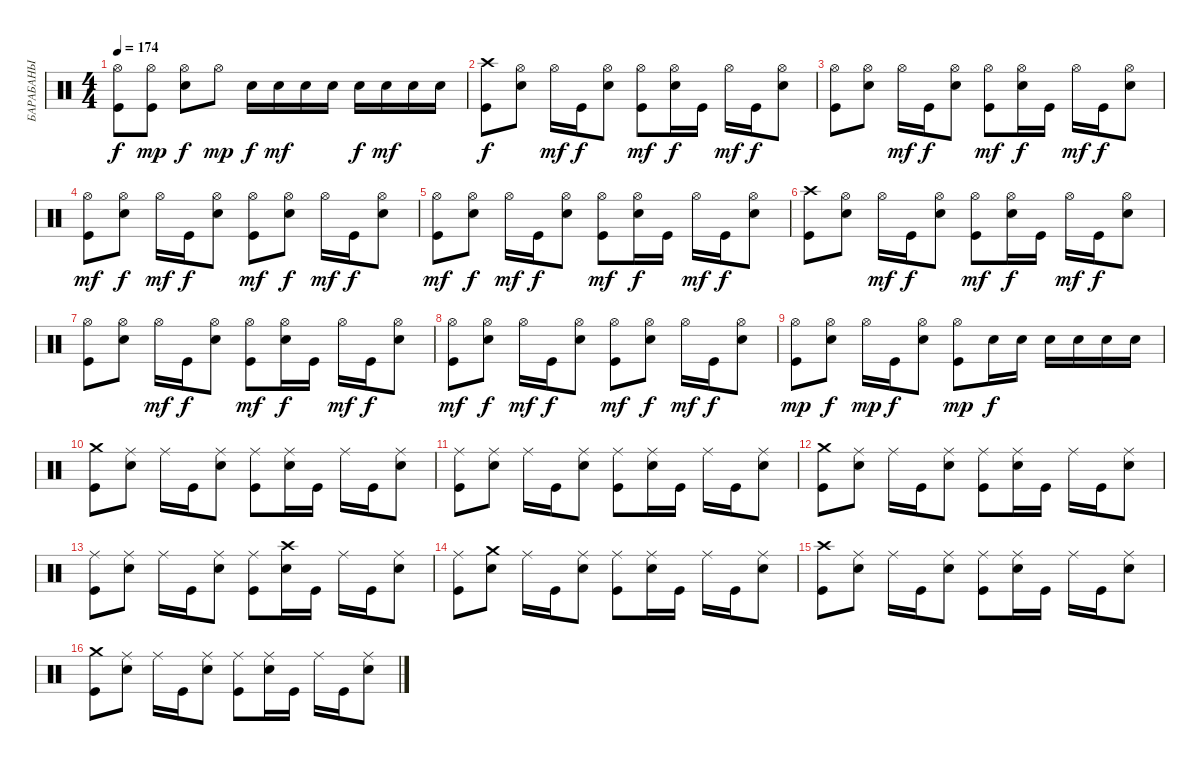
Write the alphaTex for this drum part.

\track ("БАРАБАНЫ" "БАРАБАНЫ") {instrument percussion}
\staff {score}
\articulation defaults
\ts (4 4)
\tempo 174
\clef neutral
\ks c
("Hi-Hat (open)" "Kick (hit)").8{dy f} ("Hi-Hat (open)" "Kick (hit)").8{dy mp} ("Hi-Hat (open)" "Electric Snare (hit)").8{dy f} "Hi-Hat (open)".8{dy mp} "Electric Snare (hit)".16{dy f} "Electric Snare (hit)".16{dy mf} "Electric Snare (hit)".16 "Electric Snare (hit)".16 "Electric Snare (hit)".16{dy f} "Electric Snare (hit)".16{dy mf} "Electric Snare (hit)".16 "Electric Snare (hit)".16 |
("Crash high (hit)" "Kick (hit)").8{dy f} ("Hi-Hat (open)" "Electric Snare (hit)").8 "Hi-Hat (open)".16{dy mf} "Kick (hit)".16{dy f} ("Hi-Hat (open)" "Electric Snare (hit)").8 ("Hi-Hat (open)" "Kick (hit)").8{dy mf} ("Hi-Hat (open)" "Electric Snare (hit)").16{dy f} "Kick (hit)".16 "Hi-Hat (open)".16{dy mf} "Kick (hit)".16{dy f} ("Hi-Hat (open)" "Electric Snare (hit)").8 |
("Hi-Hat (open)" "Kick (hit)").8 ("Hi-Hat (open)" "Electric Snare (hit)").8 "Hi-Hat (open)".16{dy mf} "Kick (hit)".16{dy f} ("Hi-Hat (open)" "Electric Snare (hit)").8 ("Hi-Hat (open)" "Kick (hit)").8{dy mf} ("Hi-Hat (open)" "Electric Snare (hit)").16{dy f} "Kick (hit)".16 "Hi-Hat (open)".16{dy mf} "Kick (hit)".16{dy f} ("Hi-Hat (open)" "Electric Snare (hit)").8 |
("Hi-Hat (open)" "Kick (hit)").8{dy mf} ("Hi-Hat (open)" "Electric Snare (hit)").8{dy f} "Hi-Hat (open)".16{dy mf} "Kick (hit)".16{dy f} ("Hi-Hat (open)" "Electric Snare (hit)").8 ("Hi-Hat (open)" "Kick (hit)").8{dy mf} ("Hi-Hat (open)" "Electric Snare (hit)").8{dy f} "Hi-Hat (open)".16{dy mf} "Kick (hit)".16{dy f} ("Hi-Hat (open)" "Electric Snare (hit)").8 |
("Hi-Hat (open)" "Kick (hit)").8{dy mf} ("Hi-Hat (open)" "Electric Snare (hit)").8{dy f} "Hi-Hat (open)".16{dy mf} "Kick (hit)".16{dy f} ("Hi-Hat (open)" "Electric Snare (hit)").8 ("Hi-Hat (open)" "Kick (hit)").8{dy mf} ("Hi-Hat (open)" "Electric Snare (hit)").16{dy f} "Kick (hit)".16 "Hi-Hat (open)".16{dy mf} "Kick (hit)".16{dy f} ("Hi-Hat (open)" "Electric Snare (hit)").8 |
("Crash high (hit)" "Kick (hit)").8 ("Hi-Hat (open)" "Electric Snare (hit)").8 "Hi-Hat (open)".16{dy mf} "Kick (hit)".16{dy f} ("Hi-Hat (open)" "Electric Snare (hit)").8 ("Hi-Hat (open)" "Kick (hit)").8{dy mf} ("Hi-Hat (open)" "Electric Snare (hit)").16{dy f} "Kick (hit)".16 "Hi-Hat (open)".16{dy mf} "Kick (hit)".16{dy f} ("Hi-Hat (open)" "Electric Snare (hit)").8 |
("Hi-Hat (open)" "Kick (hit)").8 ("Hi-Hat (open)" "Electric Snare (hit)").8 "Hi-Hat (open)".16{dy mf} "Kick (hit)".16{dy f} ("Hi-Hat (open)" "Electric Snare (hit)").8 ("Hi-Hat (open)" "Kick (hit)").8{dy mf} ("Hi-Hat (open)" "Electric Snare (hit)").16{dy f} "Kick (hit)".16 "Hi-Hat (open)".16{dy mf} "Kick (hit)".16{dy f} ("Hi-Hat (open)" "Electric Snare (hit)").8 |
("Hi-Hat (open)" "Kick (hit)").8{dy mf} ("Hi-Hat (open)" "Electric Snare (hit)").8{dy f} "Hi-Hat (open)".16{dy mf} "Kick (hit)".16{dy f} ("Hi-Hat (open)" "Electric Snare (hit)").8 ("Hi-Hat (open)" "Kick (hit)").8{dy mf} ("Hi-Hat (open)" "Electric Snare (hit)").8{dy f} "Hi-Hat (open)".16{dy mf} "Kick (hit)".16{dy f} ("Hi-Hat (open)" "Electric Snare (hit)").8 |
("Hi-Hat (open)" "Kick (hit)").8{dy mp} ("Hi-Hat (open)" "Electric Snare (hit)").8{dy f} "Hi-Hat (open)".16{dy mp} "Kick (hit)".16{dy f} ("Hi-Hat (open)" "Electric Snare (hit)").8 ("Hi-Hat (open)" "Kick (hit)").8{dy mp} "Electric Snare (hit)".16{dy f} "Electric Snare (hit)".16 "Electric Snare (hit)".16 "Electric Snare (hit)".16 "Electric Snare (hit)".16 "Electric Snare (hit)".16 |
("Crash medium (hit)" "Kick (hit)").8 ("Ride (middle)" "Electric Snare (hit)").8 "Ride (middle)".16 "Kick (hit)".16 ("Ride (middle)" "Electric Snare (hit)").8 ("Ride (middle)" "Kick (hit)").8 ("Ride (middle)" "Electric Snare (hit)").16 "Kick (hit)".16 "Ride (middle)".16 "Kick (hit)".16 ("Ride (middle)" "Electric Snare (hit)").8 |
("Ride (middle)" "Kick (hit)").8 ("Ride (middle)" "Electric Snare (hit)").8 "Ride (middle)".16 "Kick (hit)".16 ("Ride (middle)" "Electric Snare (hit)").8 ("Ride (middle)" "Kick (hit)").8 ("Ride (middle)" "Electric Snare (hit)").16 "Kick (hit)".16 "Ride (middle)".16 "Kick (hit)".16 ("Ride (middle)" "Electric Snare (hit)").8 |
("Crash medium (hit)" "Kick (hit)").8 ("Ride (middle)" "Electric Snare (hit)").8 "Ride (middle)".16 "Kick (hit)".16 ("Ride (middle)" "Electric Snare (hit)").8 ("Ride (middle)" "Kick (hit)").8 ("Ride (middle)" "Electric Snare (hit)").16 "Kick (hit)".16 "Ride (middle)".16 "Kick (hit)".16 ("Ride (middle)" "Electric Snare (hit)").8 |
("Ride (middle)" "Kick (hit)").8 ("Ride (middle)" "Electric Snare (hit)").8 "Ride (middle)".16 "Kick (hit)".16 ("Ride (middle)" "Electric Snare (hit)").8 ("Ride (middle)" "Kick (hit)").8 ("Crash high (hit)" "Electric Snare (hit)").16 "Kick (hit)".16 "Ride (middle)".16 "Kick (hit)".16 ("Ride (middle)" "Electric Snare (hit)").8 |
("Ride (middle)" "Kick (hit)").8 ("Crash medium (hit)" "Electric Snare (hit)").8 "Ride (middle)".16 "Kick (hit)".16 ("Ride (middle)" "Electric Snare (hit)").8 ("Ride (middle)" "Kick (hit)").8 ("Ride (middle)" "Electric Snare (hit)").16 "Kick (hit)".16 "Ride (middle)".16 "Kick (hit)".16 ("Ride (middle)" "Electric Snare (hit)").8 |
("Crash high (hit)" "Kick (hit)").8 ("Ride (middle)" "Electric Snare (hit)").8 "Ride (middle)".16 "Kick (hit)".16 ("Ride (middle)" "Electric Snare (hit)").8 ("Ride (middle)" "Kick (hit)").8 ("Ride (middle)" "Electric Snare (hit)").16 "Kick (hit)".16 "Ride (middle)".16 "Kick (hit)".16 ("Ride (middle)" "Electric Snare (hit)").8 |
("Crash medium (hit)" "Kick (hit)").8 ("Ride (middle)" "Electric Snare (hit)").8 "Ride (middle)".16 "Kick (hit)".16 ("Ride (middle)" "Electric Snare (hit)").8 ("Ride (middle)" "Kick (hit)").8 ("Ride (middle)" "Electric Snare (hit)").16 "Kick (hit)".16 "Ride (middle)".16 "Kick (hit)".16 ("Ride (middle)" "Electric Snare (hit)").8
